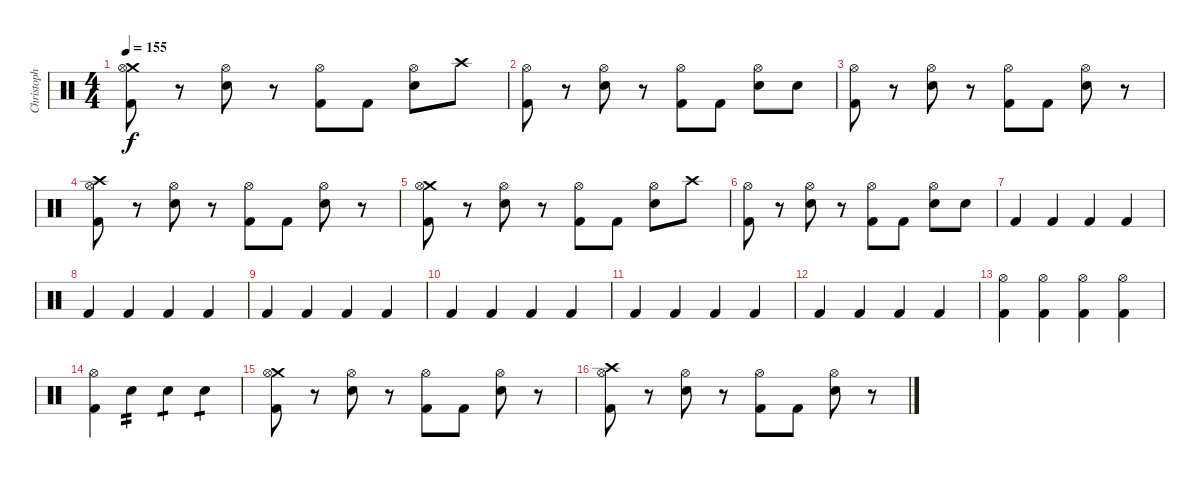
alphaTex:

\track ("Christoph \"Doom\" Schneider" "Christoph ") {instrument percussion}
\staff {score}
\articulation defaults
\ts (4 4)
\tempo 155
\clef neutral
\ks c
("Kick (hit) 2" "Crash medium (hit)" "Hi-Hat (open)").8{dy f} r.8 ("Electric Snare (hit)" "Hi-Hat (open)").8 r.8 ("Kick (hit) 2" "Hi-Hat (open)").8 "Kick (hit) 2".8 ("Electric Snare (hit)" "Hi-Hat (open)").8 "Crash high (hit)".8 |
("Kick (hit) 2" "Hi-Hat (open)").8 r.8 ("Electric Snare (hit)" "Hi-Hat (open)").8 r.8 ("Kick (hit) 2" "Hi-Hat (open)").8 "Kick (hit) 2".8 ("Electric Snare (hit)" "Hi-Hat (open)").8 "Electric Snare (hit)".8 |
("Kick (hit) 2" "Hi-Hat (open)").8 r.8 ("Electric Snare (hit)" "Hi-Hat (open)").8 r.8 ("Kick (hit) 2" "Hi-Hat (open)").8 "Kick (hit) 2".8 ("Electric Snare (hit)" "Hi-Hat (open)").8 r.8 |
("Kick (hit) 2" "Crash high (hit)" "Hi-Hat (open)").8 r.8 ("Electric Snare (hit)" "Hi-Hat (open)").8 r.8 ("Kick (hit) 2" "Hi-Hat (open)").8 "Kick (hit) 2".8 ("Electric Snare (hit)" "Hi-Hat (open)").8 r.8 |
("Kick (hit) 2" "Crash medium (hit)" "Hi-Hat (open)").8 r.8 ("Electric Snare (hit)" "Hi-Hat (open)").8 r.8 ("Kick (hit) 2" "Hi-Hat (open)").8 "Kick (hit) 2".8 ("Electric Snare (hit)" "Hi-Hat (open)").8 "Crash high (hit)".8 |
("Kick (hit) 2" "Hi-Hat (open)").8 r.8 ("Electric Snare (hit)" "Hi-Hat (open)").8 r.8 ("Kick (hit) 2" "Hi-Hat (open)").8 "Kick (hit) 2".8 ("Electric Snare (hit)" "Hi-Hat (open)").8 "Electric Snare (hit)".8 |
"Kick (hit) 2".4 "Kick (hit) 2".4 "Kick (hit) 2".4 "Kick (hit) 2".4 |
"Kick (hit) 2".4 "Kick (hit) 2".4 "Kick (hit) 2".4 "Kick (hit) 2".4 |
"Kick (hit) 2".4 "Kick (hit) 2".4 "Kick (hit) 2".4 "Kick (hit) 2".4 |
"Kick (hit) 2".4 "Kick (hit) 2".4 "Kick (hit) 2".4 "Kick (hit) 2".4 |
"Kick (hit) 2".4 "Kick (hit) 2".4 "Kick (hit) 2".4 "Kick (hit) 2".4 |
"Kick (hit) 2".4 "Kick (hit) 2".4 "Kick (hit) 2".4 "Kick (hit) 2".4 |
("Hi-Hat (open)" "Kick (hit) 2").4 ("Hi-Hat (open)" "Kick (hit) 2").4 ("Hi-Hat (open)" "Kick (hit) 2").4 ("Hi-Hat (open)" "Kick (hit) 2").4 |
("Hi-Hat (open)" "Kick (hit) 2").4 "Electric Snare (hit)".4{tp 2} "Electric Snare (hit)".4{tp 1} "Electric Snare (hit)".4{tp 1} |
("Kick (hit) 2" "Crash medium (hit)" "Hi-Hat (open)").8 r.8 ("Electric Snare (hit)" "Hi-Hat (open)").8 r.8 ("Kick (hit) 2" "Hi-Hat (open)").8 "Kick (hit) 2".8 ("Electric Snare (hit)" "Hi-Hat (open)").8 r.8 |
("Kick (hit) 2" "Crash high (hit)" "Hi-Hat (open)").8 r.8 ("Electric Snare (hit)" "Hi-Hat (open)").8 r.8 ("Kick (hit) 2" "Hi-Hat (open)").8 "Kick (hit) 2".8 ("Electric Snare (hit)" "Hi-Hat (open)").8 r.8
